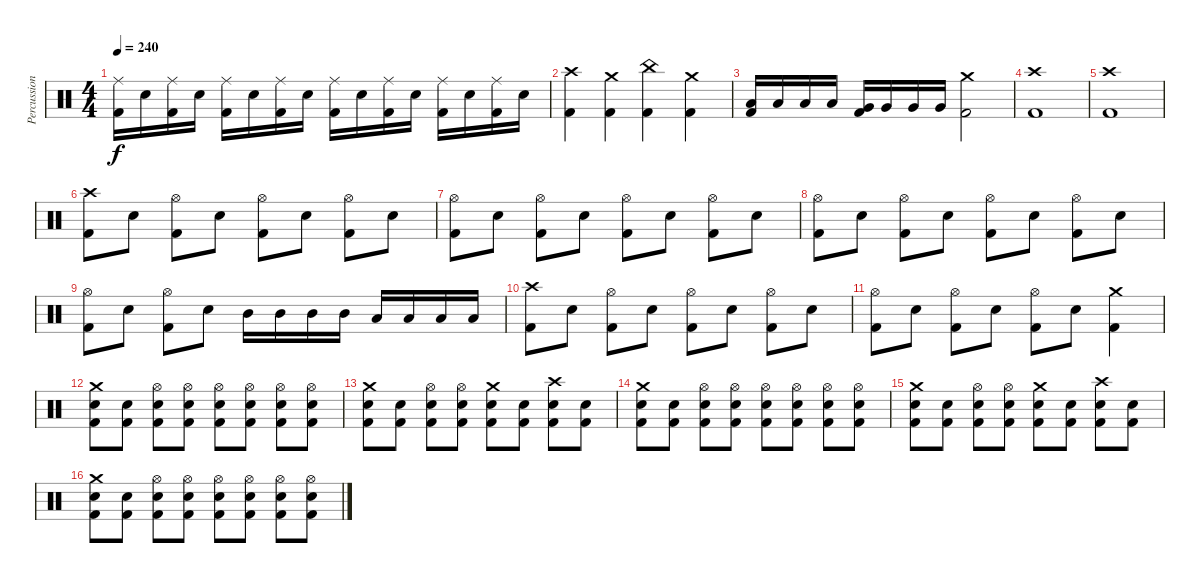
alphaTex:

\track ("Percussion" "Percussion") {solo instrument percussion}
\staff {score}
\articulation defaults
\ts (4 4)
\tempo 240
\clef neutral
\ks c
("Ride (middle)" "Kick (hit) 2").16{dy f} "Electric Snare (hit)".16 ("Ride (middle)" "Kick (hit) 2").16 "Electric Snare (hit)".16 ("Ride (middle)" "Kick (hit) 2").16 "Electric Snare (hit)".16 ("Ride (middle)" "Kick (hit) 2").16 "Electric Snare (hit)".16 ("Ride (middle)" "Kick (hit) 2").16 "Electric Snare (hit)".16 ("Ride (middle)" "Kick (hit) 2").16 "Electric Snare (hit)".16 ("Ride (middle)" "Kick (hit) 2").16 "Electric Snare (hit)".16 ("Ride (middle)" "Kick (hit) 2").16 "Electric Snare (hit)".16 |
("Crash high (hit)" "Kick (hit) 2").4 ("Crash medium (hit)" "Kick (hit) 2").4 ("China (hit)" "Kick (hit) 2").4 ("Crash medium (hit)" "Kick (hit) 2").4 |
("Low Tom (hit)" "Kick (hit) 2").16 "Low Tom (hit)".16 "Low Tom (hit)".16 "Low Tom (hit)".16 ("Very Low Tom (hit)" "Kick (hit) 2").16 "Very Low Tom (hit)".16 "Very Low Tom (hit)".16 "Very Low Tom (hit)".16 ("Crash medium (hit)" "Kick (hit) 2").2 |
("Crash high (hit)" "Kick (hit) 2").1 |
("Crash high (hit)" "Kick (hit) 2").1 |
("Crash high (hit)" "Kick (hit) 2").8 "Electric Snare (hit)".8 ("Hi-Hat (open)" "Kick (hit) 2").8 "Electric Snare (hit)".8 ("Hi-Hat (open)" "Kick (hit) 2").8 "Electric Snare (hit)".8 ("Hi-Hat (open)" "Kick (hit) 2").8 "Electric Snare (hit)".8 |
("Hi-Hat (open)" "Kick (hit) 2").8 "Electric Snare (hit)".8 ("Hi-Hat (open)" "Kick (hit) 2").8 "Electric Snare (hit)".8 ("Hi-Hat (open)" "Kick (hit) 2").8 "Electric Snare (hit)".8 ("Hi-Hat (open)" "Kick (hit) 2").8 "Electric Snare (hit)".8 |
("Hi-Hat (open)" "Kick (hit) 2").8 "Electric Snare (hit)".8 ("Hi-Hat (open)" "Kick (hit) 2").8 "Electric Snare (hit)".8 ("Hi-Hat (open)" "Kick (hit) 2").8 "Electric Snare (hit)".8 ("Hi-Hat (open)" "Kick (hit) 2").8 "Electric Snare (hit)".8 |
("Hi-Hat (open)" "Kick (hit) 2").8 "Electric Snare (hit)".8 ("Hi-Hat (open)" "Kick (hit) 2").8 "Electric Snare (hit)".8 "Mid Tom (hit)".16 "Mid Tom (hit)".16 "Mid Tom (hit)".16 "Mid Tom (hit)".16 "Low Tom (hit)".16 "Low Tom (hit)".16 "Low Tom (hit)".16 "Low Tom (hit)".16 |
("Crash high (hit)" "Kick (hit) 2").8 "Electric Snare (hit)".8 ("Hi-Hat (open)" "Kick (hit) 2").8 "Electric Snare (hit)".8 ("Hi-Hat (open)" "Kick (hit) 2").8 "Electric Snare (hit)".8 ("Hi-Hat (open)" "Kick (hit) 2").8 "Electric Snare (hit)".8 |
("Hi-Hat (open)" "Kick (hit) 2").8 "Electric Snare (hit)".8 ("Hi-Hat (open)" "Kick (hit) 2").8 "Electric Snare (hit)".8 ("Hi-Hat (open)" "Kick (hit) 2").8 "Electric Snare (hit)".8 ("Crash medium (hit)" "Kick (hit) 2").4 |
("Crash medium (hit)" "Electric Snare (hit)" "Kick (hit) 2").8 ("Electric Snare (hit)" "Kick (hit) 2").8 ("Hi-Hat (open)" "Electric Snare (hit)" "Kick (hit) 2").8 ("Hi-Hat (open)" "Electric Snare (hit)" "Kick (hit) 2").8 ("Hi-Hat (open)" "Electric Snare (hit)" "Kick (hit) 2").8 ("Hi-Hat (open)" "Electric Snare (hit)" "Kick (hit) 2").8 ("Hi-Hat (open)" "Electric Snare (hit)" "Kick (hit) 2").8 ("Hi-Hat (open)" "Electric Snare (hit)" "Kick (hit) 2").8 |
("Crash medium (hit)" "Electric Snare (hit)" "Kick (hit) 2").8 ("Electric Snare (hit)" "Kick (hit) 2").8 ("Hi-Hat (open)" "Electric Snare (hit)" "Kick (hit) 2").8 ("Hi-Hat (open)" "Electric Snare (hit)" "Kick (hit) 2").8 ("Crash medium (hit)" "Electric Snare (hit)" "Kick (hit) 2").8 ("Electric Snare (hit)" "Kick (hit) 2").8 ("Crash high (hit)" "Electric Snare (hit)" "Kick (hit) 2").8 ("Electric Snare (hit)" "Kick (hit) 2").8 |
("Crash medium (hit)" "Electric Snare (hit)" "Kick (hit) 2").8 ("Electric Snare (hit)" "Kick (hit) 2").8 ("Hi-Hat (open)" "Electric Snare (hit)" "Kick (hit) 2").8 ("Hi-Hat (open)" "Electric Snare (hit)" "Kick (hit) 2").8 ("Hi-Hat (open)" "Electric Snare (hit)" "Kick (hit) 2").8 ("Hi-Hat (open)" "Electric Snare (hit)" "Kick (hit) 2").8 ("Hi-Hat (open)" "Electric Snare (hit)" "Kick (hit) 2").8 ("Hi-Hat (open)" "Electric Snare (hit)" "Kick (hit) 2").8 |
("Crash medium (hit)" "Electric Snare (hit)" "Kick (hit) 2").8 ("Electric Snare (hit)" "Kick (hit) 2").8 ("Hi-Hat (open)" "Electric Snare (hit)" "Kick (hit) 2").8 ("Hi-Hat (open)" "Electric Snare (hit)" "Kick (hit) 2").8 ("Crash medium (hit)" "Electric Snare (hit)" "Kick (hit) 2").8 ("Electric Snare (hit)" "Kick (hit) 2").8 ("Crash high (hit)" "Electric Snare (hit)" "Kick (hit) 2").8 ("Electric Snare (hit)" "Kick (hit) 2").8 |
("Crash medium (hit)" "Electric Snare (hit)" "Kick (hit) 2").8 ("Electric Snare (hit)" "Kick (hit) 2").8 ("Hi-Hat (open)" "Electric Snare (hit)" "Kick (hit) 2").8 ("Hi-Hat (open)" "Electric Snare (hit)" "Kick (hit) 2").8 ("Hi-Hat (open)" "Electric Snare (hit)" "Kick (hit) 2").8 ("Hi-Hat (open)" "Electric Snare (hit)" "Kick (hit) 2").8 ("Hi-Hat (open)" "Electric Snare (hit)" "Kick (hit) 2").8 ("Hi-Hat (open)" "Electric Snare (hit)" "Kick (hit) 2").8
